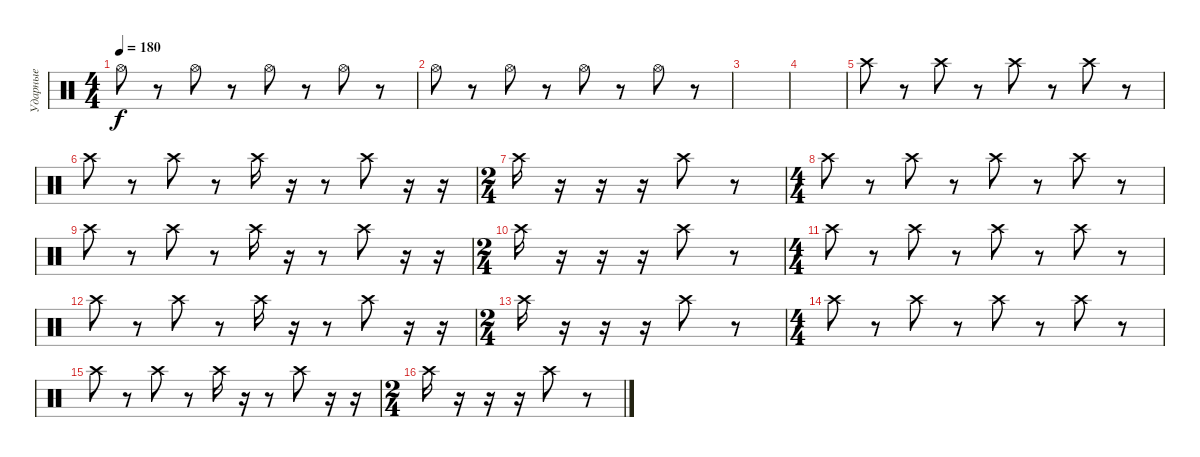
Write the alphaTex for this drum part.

\track ("Ударные" "Ударные") {instrument percussion}
\staff {score}
\articulation defaults
\ts (4 4)
\tempo 180
\clef neutral
\ks c "Hi-Hat (open)".8{dy f}
r.8 "Hi-Hat (open)".8 r.8 "Hi-Hat (open)".8 r.8 "Hi-Hat (open)".8 r.8 |
"Hi-Hat (open)".8 r.8 "Hi-Hat (open)".8 r.8 "Hi-Hat (open)".8 r.8 "Hi-Hat (open)".8 r.8 |
|
|
"Crash high (hit)".8 r.8 "Crash high (hit)".8 r.8 "Crash high (hit)".8 r.8 "Crash high (hit)".8 r.8 |
"Crash high (hit)".8 r.8 "Crash high (hit)".8 r.8 "Crash high (hit)".16 r.16 r.8 "Crash high (hit)".8 r.16 r.16 |
\ts (2 4)
"Crash high (hit)".16 r.16 r.16 r.16 "Crash high (hit)".8 r.8 |
\ts (4 4)
"Crash high (hit)".8 r.8 "Crash high (hit)".8 r.8 "Crash high (hit)".8 r.8 "Crash high (hit)".8 r.8 |
"Crash high (hit)".8 r.8 "Crash high (hit)".8 r.8 "Crash high (hit)".16 r.16 r.8 "Crash high (hit)".8 r.16 r.16 |
\ts (2 4)
"Crash high (hit)".16 r.16 r.16 r.16 "Crash high (hit)".8 r.8 |
\ts (4 4)
"Crash high (hit)".8 r.8 "Crash high (hit)".8 r.8 "Crash high (hit)".8 r.8 "Crash high (hit)".8 r.8 |
"Crash high (hit)".8 r.8 "Crash high (hit)".8 r.8 "Crash high (hit)".16 r.16 r.8 "Crash high (hit)".8 r.16 r.16 |
\ts (2 4)
"Crash high (hit)".16 r.16 r.16 r.16 "Crash high (hit)".8 r.8 |
\ts (4 4)
"Crash high (hit)".8 r.8 "Crash high (hit)".8 r.8 "Crash high (hit)".8 r.8 "Crash high (hit)".8 r.8 |
"Crash high (hit)".8 r.8 "Crash high (hit)".8 r.8 "Crash high (hit)".16 r.16 r.8 "Crash high (hit)".8 r.16 r.16 |
\ts (2 4)
"Crash high (hit)".16 r.16 r.16 r.16 "Crash high (hit)".8 r.8
